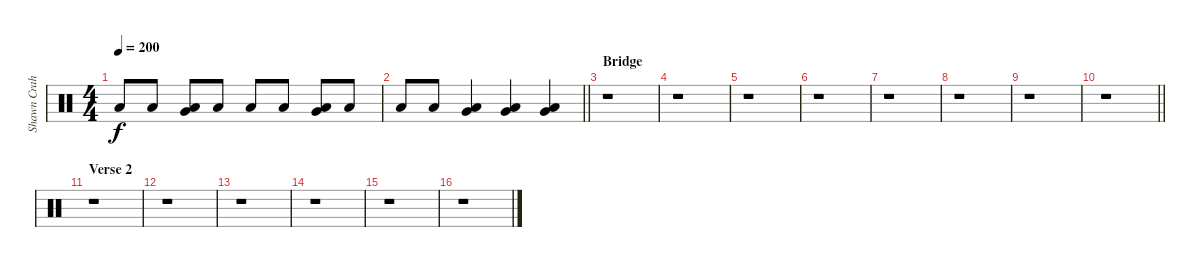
\track ("Shawn Crahan" "Shawn Crah") {instrument percussion}
\staff {score}
\articulation defaults
\ts (4 4)
\tempo 200
\clef neutral
\ks c "Low Floor Tom (hit)".8{dy f} "Low Floor Tom (hit)".8
("Very Low Tom (hit)" "Low Floor Tom (hit)").8 "Low Floor Tom (hit)".8 "Low Floor Tom (hit)".8 "Low Floor Tom (hit)".8 ("Very Low Tom (hit)" "Low Floor Tom (hit)").8 "Low Floor Tom (hit)".8 |
\barLineRight lightlight "Low Floor Tom (hit)".8 "Low Floor Tom (hit)".8
("Very Low Tom (hit)" "Low Floor Tom (hit)").4 ("Very Low Tom (hit)" "Low Floor Tom (hit)").4 ("Very Low Tom (hit)" "Low Floor Tom (hit)").4 |
\section ("" "Bridge")
r.1 |
r.1 |
r.1 |
r.1 |
r.1 |
r.1 |
r.1 |
\barLineRight lightlight
r.1 |
\section ("" "Verse 2")
r.1 |
r.1 |
r.1 |
r.1 |
r.1 |
r.1
